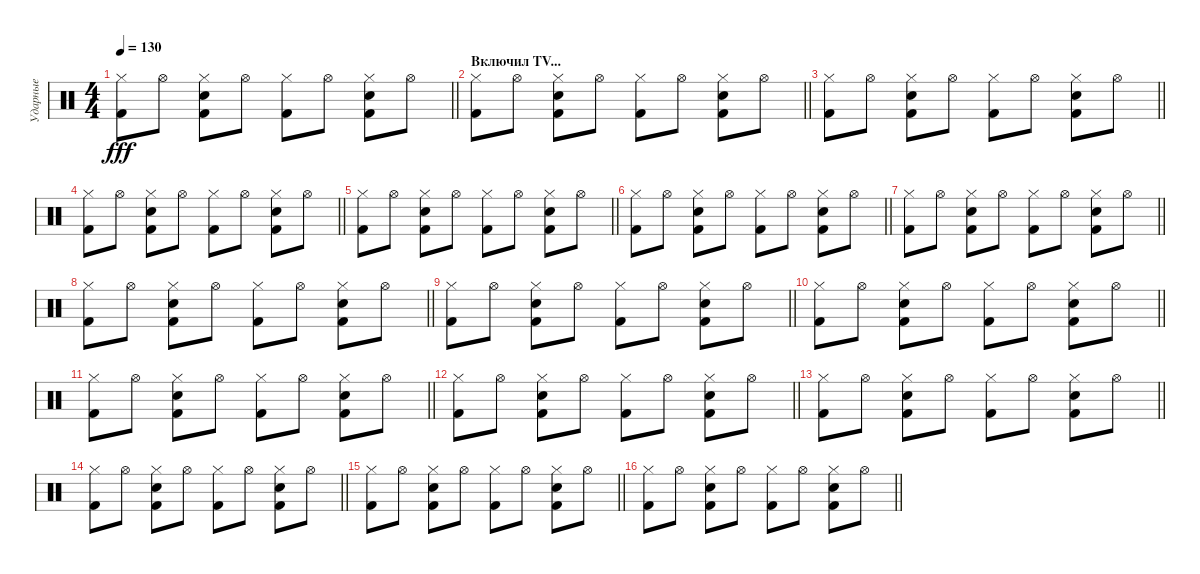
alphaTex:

\track ("Ударные" "Ударные") {instrument percussion}
\staff {score}
\articulation defaults
\ts (4 4)
\tempo 130
\clef neutral
\barLineRight lightlight
\ks c
("Kick (hit) 2" "Hi-Hat (closed)").8{dy fff} "Hi-Hat (open)".8 ("Kick (hit) 2" "Hi-Hat (closed)" "Electric Snare (hit)").8 "Hi-Hat (open)".8 ("Kick (hit) 2" "Hi-Hat (closed)").8 "Hi-Hat (open)".8 ("Kick (hit) 2" "Hi-Hat (closed)" "Electric Snare (hit)").8 "Hi-Hat (open)".8 |
\section ("" "Включил TV...")
\barLineRight lightlight
("Kick (hit) 2" "Hi-Hat (closed)").8 "Hi-Hat (open)".8 ("Kick (hit) 2" "Hi-Hat (closed)" "Electric Snare (hit)").8 "Hi-Hat (open)".8 ("Kick (hit) 2" "Hi-Hat (closed)").8 "Hi-Hat (open)".8 ("Kick (hit) 2" "Hi-Hat (closed)" "Electric Snare (hit)").8 "Hi-Hat (open)".8 |
\barLineRight lightlight
("Kick (hit) 2" "Hi-Hat (closed)").8 "Hi-Hat (open)".8 ("Kick (hit) 2" "Hi-Hat (closed)" "Electric Snare (hit)").8 "Hi-Hat (open)".8 ("Kick (hit) 2" "Hi-Hat (closed)").8 "Hi-Hat (open)".8 ("Kick (hit) 2" "Hi-Hat (closed)" "Electric Snare (hit)").8 "Hi-Hat (open)".8 |
\barLineRight lightlight
("Kick (hit) 2" "Hi-Hat (closed)").8 "Hi-Hat (open)".8 ("Kick (hit) 2" "Hi-Hat (closed)" "Electric Snare (hit)").8 "Hi-Hat (open)".8 ("Kick (hit) 2" "Hi-Hat (closed)").8 "Hi-Hat (open)".8 ("Kick (hit) 2" "Hi-Hat (closed)" "Electric Snare (hit)").8 "Hi-Hat (open)".8 |
\barLineRight lightlight
("Kick (hit) 2" "Hi-Hat (closed)").8 "Hi-Hat (open)".8 ("Kick (hit) 2" "Hi-Hat (closed)" "Electric Snare (hit)").8 "Hi-Hat (open)".8 ("Kick (hit) 2" "Hi-Hat (closed)").8 "Hi-Hat (open)".8 ("Kick (hit) 2" "Hi-Hat (closed)" "Electric Snare (hit)").8 "Hi-Hat (open)".8 |
\barLineRight lightlight
("Kick (hit) 2" "Hi-Hat (closed)").8 "Hi-Hat (open)".8 ("Kick (hit) 2" "Hi-Hat (closed)" "Electric Snare (hit)").8 "Hi-Hat (open)".8 ("Kick (hit) 2" "Hi-Hat (closed)").8 "Hi-Hat (open)".8 ("Kick (hit) 2" "Hi-Hat (closed)" "Electric Snare (hit)").8 "Hi-Hat (open)".8 |
\barLineRight lightlight
("Kick (hit) 2" "Hi-Hat (closed)").8 "Hi-Hat (open)".8 ("Kick (hit) 2" "Hi-Hat (closed)" "Electric Snare (hit)").8 "Hi-Hat (open)".8 ("Kick (hit) 2" "Hi-Hat (closed)").8 "Hi-Hat (open)".8 ("Kick (hit) 2" "Hi-Hat (closed)" "Electric Snare (hit)").8 "Hi-Hat (open)".8 |
\barLineRight lightlight
("Kick (hit) 2" "Hi-Hat (closed)").8 "Hi-Hat (open)".8 ("Kick (hit) 2" "Hi-Hat (closed)" "Electric Snare (hit)").8 "Hi-Hat (open)".8 ("Kick (hit) 2" "Hi-Hat (closed)").8 "Hi-Hat (open)".8 ("Kick (hit) 2" "Hi-Hat (closed)" "Electric Snare (hit)").8 "Hi-Hat (open)".8 |
\barLineRight lightlight
("Kick (hit) 2" "Hi-Hat (closed)").8 "Hi-Hat (open)".8 ("Kick (hit) 2" "Hi-Hat (closed)" "Electric Snare (hit)").8 "Hi-Hat (open)".8 ("Kick (hit) 2" "Hi-Hat (closed)").8 "Hi-Hat (open)".8 ("Kick (hit) 2" "Hi-Hat (closed)" "Electric Snare (hit)").8 "Hi-Hat (open)".8 |
\barLineRight lightlight
("Kick (hit) 2" "Hi-Hat (closed)").8 "Hi-Hat (open)".8 ("Kick (hit) 2" "Hi-Hat (closed)" "Electric Snare (hit)").8 "Hi-Hat (open)".8 ("Kick (hit) 2" "Hi-Hat (closed)").8 "Hi-Hat (open)".8 ("Kick (hit) 2" "Hi-Hat (closed)" "Electric Snare (hit)").8 "Hi-Hat (open)".8 |
\barLineRight lightlight
("Kick (hit) 2" "Hi-Hat (closed)").8 "Hi-Hat (open)".8 ("Kick (hit) 2" "Hi-Hat (closed)" "Electric Snare (hit)").8 "Hi-Hat (open)".8 ("Kick (hit) 2" "Hi-Hat (closed)").8 "Hi-Hat (open)".8 ("Kick (hit) 2" "Hi-Hat (closed)" "Electric Snare (hit)").8 "Hi-Hat (open)".8 |
\barLineRight lightlight
("Kick (hit) 2" "Hi-Hat (closed)").8 "Hi-Hat (open)".8 ("Kick (hit) 2" "Hi-Hat (closed)" "Electric Snare (hit)").8 "Hi-Hat (open)".8 ("Kick (hit) 2" "Hi-Hat (closed)").8 "Hi-Hat (open)".8 ("Kick (hit) 2" "Hi-Hat (closed)" "Electric Snare (hit)").8 "Hi-Hat (open)".8 |
\barLineRight lightlight
("Kick (hit) 2" "Hi-Hat (closed)").8 "Hi-Hat (open)".8 ("Kick (hit) 2" "Hi-Hat (closed)" "Electric Snare (hit)").8 "Hi-Hat (open)".8 ("Kick (hit) 2" "Hi-Hat (closed)").8 "Hi-Hat (open)".8 ("Kick (hit) 2" "Hi-Hat (closed)" "Electric Snare (hit)").8 "Hi-Hat (open)".8 |
\barLineRight lightlight
("Kick (hit) 2" "Hi-Hat (closed)").8 "Hi-Hat (open)".8 ("Kick (hit) 2" "Hi-Hat (closed)" "Electric Snare (hit)").8 "Hi-Hat (open)".8 ("Kick (hit) 2" "Hi-Hat (closed)").8 "Hi-Hat (open)".8 ("Kick (hit) 2" "Hi-Hat (closed)" "Electric Snare (hit)").8 "Hi-Hat (open)".8 |
\barLineRight lightlight
("Kick (hit) 2" "Hi-Hat (closed)").8 "Hi-Hat (open)".8 ("Kick (hit) 2" "Hi-Hat (closed)" "Electric Snare (hit)").8 "Hi-Hat (open)".8 ("Kick (hit) 2" "Hi-Hat (closed)").8 "Hi-Hat (open)".8 ("Kick (hit) 2" "Hi-Hat (closed)" "Electric Snare (hit)").8 "Hi-Hat (open)".8 |
\barLineRight lightlight
("Kick (hit) 2" "Hi-Hat (closed)").8 "Hi-Hat (open)".8 ("Kick (hit) 2" "Hi-Hat (closed)" "Electric Snare (hit)").8 "Hi-Hat (open)".8 ("Kick (hit) 2" "Hi-Hat (closed)").8 "Hi-Hat (open)".8 ("Kick (hit) 2" "Hi-Hat (closed)" "Electric Snare (hit)").8 "Hi-Hat (open)".8
